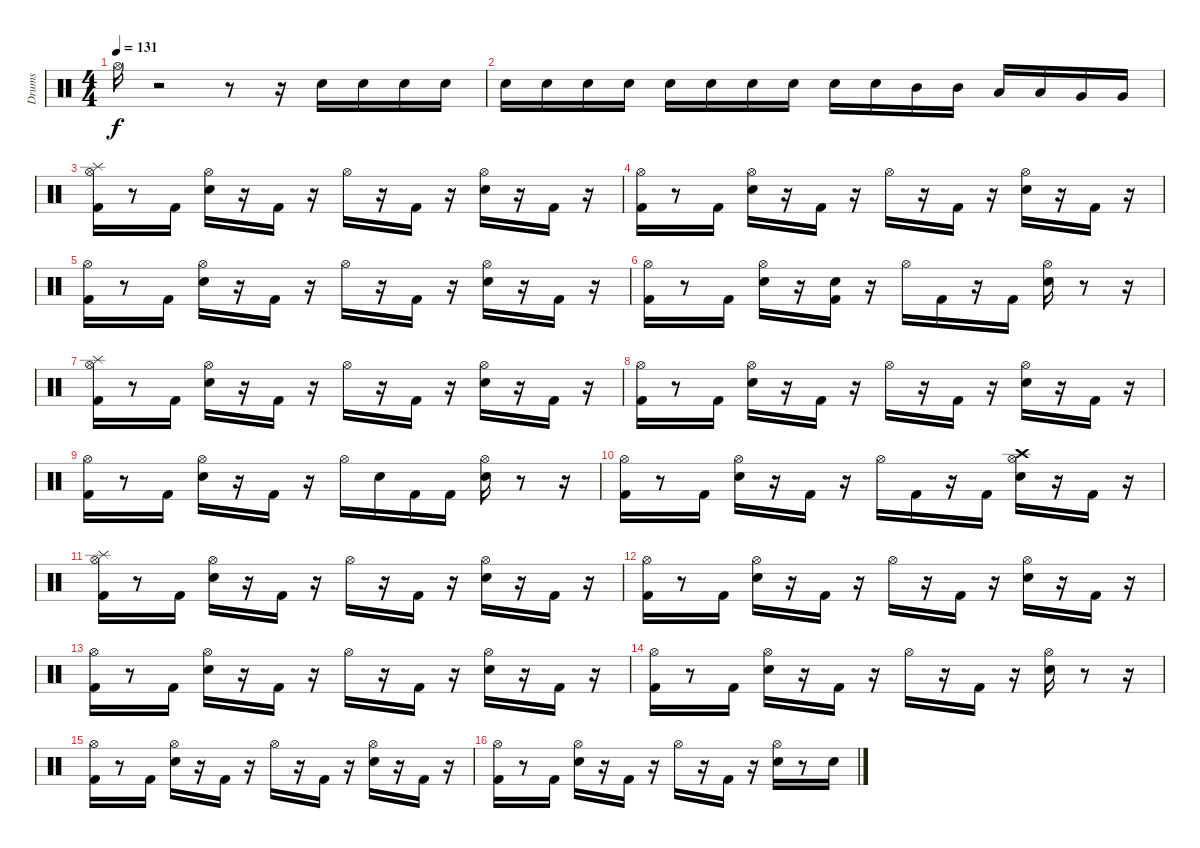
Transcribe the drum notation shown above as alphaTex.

\track ("Drums" "Drums") {instrument percussion}
\staff {score}
\articulation defaults
\ts (4 4)
\tempo 131
\clef neutral
\ks c "Hi-Hat (open)".16{dy f}
r.2 r.8 r.16 "Snare (hit) 2".16 "Snare (hit) 2".16 "Snare (hit) 2".16 "Snare (hit) 2".16 |
"Snare (hit) 2".16 "Snare (hit) 2".16 "Snare (hit) 2".16 "Snare (hit) 2".16 "Snare (hit) 2".16 "Snare (hit) 2".16 "Snare (hit) 2".16 "Snare (hit) 2".16 "Snare (hit) 2".16 "Snare (hit) 2".16 "Mid Tom (hit)".16 "Mid Tom (hit)".16 "Low Tom (hit)".16 "Low Tom (hit)".16 "Very Low Tom (hit)".16 "Very Low Tom (hit)".16 |
("Hi-Hat (open)" "Splash (hit)" "Kick (hit) 2").16 r.8 "Kick (hit) 2".16 ("Hi-Hat (open)" "Snare (hit) 2").16 r.16 "Kick (hit) 2".16 r.16 "Hi-Hat (open)".16 r.16 "Kick (hit) 2".16 r.16 ("Hi-Hat (open)" "Snare (hit) 2").16 r.16 "Kick (hit) 2".16 r.16 |
("Hi-Hat (open)" "Kick (hit) 2").16 r.8 "Kick (hit) 2".16 ("Hi-Hat (open)" "Snare (hit) 2").16 r.16 "Kick (hit) 2".16 r.16 "Hi-Hat (open)".16 r.16 "Kick (hit) 2".16 r.16 ("Hi-Hat (open)" "Snare (hit) 2").16 r.16 "Kick (hit) 2".16 r.16 |
("Hi-Hat (open)" "Kick (hit) 2").16 r.8 "Kick (hit) 2".16 ("Hi-Hat (open)" "Snare (hit) 2").16 r.16 "Kick (hit) 2".16 r.16 "Hi-Hat (open)".16 r.16 "Kick (hit) 2".16 r.16 ("Hi-Hat (open)" "Snare (hit) 2").16 r.16 "Kick (hit) 2".16 r.16 |
("Hi-Hat (open)" "Kick (hit) 2").16 r.8 "Kick (hit) 2".16 ("Hi-Hat (open)" "Snare (hit) 2").16 r.16 ("Kick (hit) 2" "Snare (hit) 2").16 r.16 "Hi-Hat (open)".16 "Kick (hit) 2".16 r.16 "Kick (hit) 2".16 ("Hi-Hat (open)" "Snare (hit) 2").16 r.8 r.16 |
("Hi-Hat (open)" "Splash (hit)" "Kick (hit) 2").16 r.8 "Kick (hit) 2".16 ("Hi-Hat (open)" "Snare (hit) 2").16 r.16 "Kick (hit) 2".16 r.16 "Hi-Hat (open)".16 r.16 "Kick (hit) 2".16 r.16 ("Hi-Hat (open)" "Snare (hit) 2").16 r.16 "Kick (hit) 2".16 r.16 |
("Hi-Hat (open)" "Kick (hit) 2").16 r.8 "Kick (hit) 2".16 ("Hi-Hat (open)" "Snare (hit) 2").16 r.16 "Kick (hit) 2".16 r.16 "Hi-Hat (open)".16 r.16 "Kick (hit) 2".16 r.16 ("Hi-Hat (open)" "Snare (hit) 2").16 r.16 "Kick (hit) 2".16 r.16 |
("Hi-Hat (open)" "Kick (hit) 2").16 r.8 "Kick (hit) 2".16 ("Hi-Hat (open)" "Snare (hit) 2").16 r.16 "Kick (hit) 2".16 r.16 "Hi-Hat (open)".16 "Snare (hit) 2".16 "Kick (hit) 2".16 "Kick (hit) 2".16 ("Hi-Hat (open)" "Snare (hit) 2").16 r.8 r.16 |
("Hi-Hat (open)" "Kick (hit) 2").16 r.8 "Kick (hit) 2".16 ("Hi-Hat (open)" "Snare (hit) 2").16 r.16 "Kick (hit) 2".16 r.16 "Hi-Hat (open)".16 "Kick (hit) 2".16 r.16 "Kick (hit) 2".16 ("Hi-Hat (open)" "Crash high (hit)" "Snare (hit) 2").16 r.16 "Kick (hit) 2".16 r.16 |
("Hi-Hat (open)" "Splash (hit)" "Kick (hit) 2").16 r.8 "Kick (hit) 2".16 ("Hi-Hat (open)" "Snare (hit) 2").16 r.16 "Kick (hit) 2".16 r.16 "Hi-Hat (open)".16 r.16 "Kick (hit) 2".16 r.16 ("Hi-Hat (open)" "Snare (hit) 2").16 r.16 "Kick (hit) 2".16 r.16 |
("Hi-Hat (open)" "Kick (hit) 2").16 r.8 "Kick (hit) 2".16 ("Hi-Hat (open)" "Snare (hit) 2").16 r.16 "Kick (hit) 2".16 r.16 "Hi-Hat (open)".16 r.16 "Kick (hit) 2".16 r.16 ("Hi-Hat (open)" "Snare (hit) 2").16 r.16 "Kick (hit) 2".16 r.16 |
("Hi-Hat (open)" "Kick (hit) 2").16 r.8 "Kick (hit) 2".16 ("Hi-Hat (open)" "Snare (hit) 2").16 r.16 "Kick (hit) 2".16 r.16 "Hi-Hat (open)".16 r.16 "Kick (hit) 2".16 r.16 ("Hi-Hat (open)" "Snare (hit) 2").16 r.16 "Kick (hit) 2".16 r.16 |
("Hi-Hat (open)" "Kick (hit) 2").16 r.8 "Kick (hit) 2".16 ("Hi-Hat (open)" "Snare (hit) 2").16 r.16 "Kick (hit) 2".16 r.16 "Hi-Hat (open)".16 r.16 "Kick (hit) 2".16 r.16 ("Hi-Hat (open)" "Snare (hit) 2").16 r.8 r.16 |
("Hi-Hat (open)" "Kick (hit) 2").16 r.8 "Kick (hit) 2".16 ("Hi-Hat (open)" "Snare (hit) 2").16 r.16 "Kick (hit) 2".16 r.16 "Hi-Hat (open)".16 r.16 "Kick (hit) 2".16 r.16 ("Hi-Hat (open)" "Snare (hit) 2").16 r.16 "Kick (hit) 2".16 r.16 |
("Hi-Hat (open)" "Kick (hit) 2").16 r.8 "Kick (hit) 2".16 ("Hi-Hat (open)" "Snare (hit) 2").16 r.16 "Kick (hit) 2".16 r.16 "Hi-Hat (open)".16 r.16 "Kick (hit) 2".16 r.16 ("Hi-Hat (open)" "Snare (hit) 2").16 r.8 "Snare (hit) 2".16
